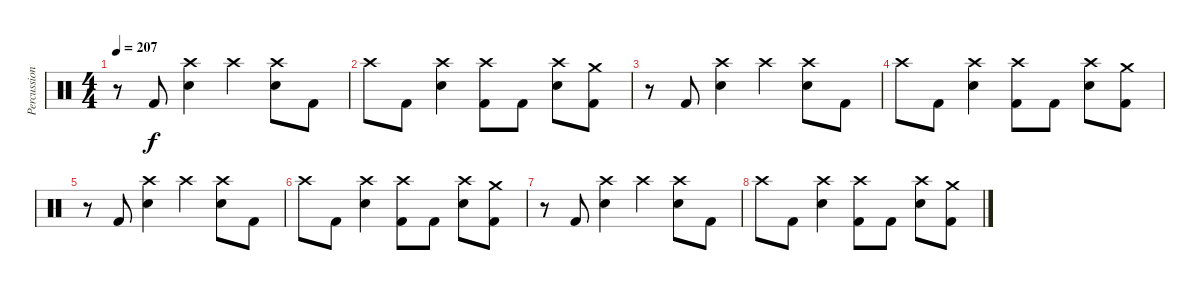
\track ("Percussion" "Percussion") {instrument percussion}
\staff {score}
\articulation defaults
\ts (4 4)
\tempo 207
\clef neutral
\ks c
r.8{dy f} "Kick (hit) 2".8 ("Crash high (hit)" "Snare (hit) 2").4 "Crash high (hit)".4 ("Crash high (hit)" "Snare (hit) 2").8 "Kick (hit) 2".8 |
"Crash high (hit)".8 "Kick (hit) 2".8 ("Crash high (hit)" "Snare (hit) 2").4 ("Crash high (hit)" "Kick (hit) 2").8 "Kick (hit) 2".8 ("Crash high (hit)" "Snare (hit) 2").8 ("Crash medium (hit)" "Kick (hit) 2").8 |
r.8 "Kick (hit) 2".8 ("Crash high (hit)" "Snare (hit) 2").4 "Crash high (hit)".4 ("Crash high (hit)" "Snare (hit) 2").8 "Kick (hit) 2".8 |
"Crash high (hit)".8 "Kick (hit) 2".8 ("Crash high (hit)" "Snare (hit) 2").4 ("Crash high (hit)" "Kick (hit) 2").8 "Kick (hit) 2".8 ("Crash high (hit)" "Snare (hit) 2").8 ("Crash medium (hit)" "Kick (hit) 2").8 |
r.8 "Kick (hit) 2".8 ("Crash high (hit)" "Snare (hit) 2").4 "Crash high (hit)".4 ("Crash high (hit)" "Snare (hit) 2").8 "Kick (hit) 2".8 |
"Crash high (hit)".8 "Kick (hit) 2".8 ("Crash high (hit)" "Snare (hit) 2").4 ("Crash high (hit)" "Kick (hit) 2").8 "Kick (hit) 2".8 ("Crash high (hit)" "Snare (hit) 2").8 ("Crash medium (hit)" "Kick (hit) 2").8 |
r.8 "Kick (hit) 2".8 ("Crash high (hit)" "Snare (hit) 2").4 "Crash high (hit)".4 ("Crash high (hit)" "Snare (hit) 2").8 "Kick (hit) 2".8 |
"Crash high (hit)".8 "Kick (hit) 2".8 ("Crash high (hit)" "Snare (hit) 2").4 ("Crash high (hit)" "Kick (hit) 2").8 "Kick (hit) 2".8 ("Crash high (hit)" "Snare (hit) 2").8 ("Crash medium (hit)" "Kick (hit) 2").8
